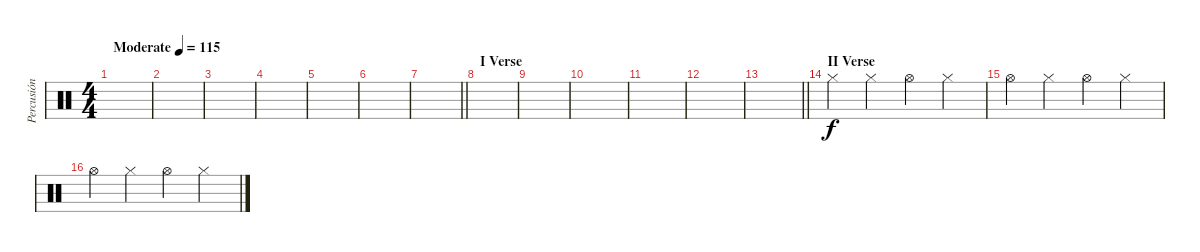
\track ("Percusión" "Percusión") {instrument percussion}
\staff {score}
\articulation defaults
\ts (4 4)
\tempo (115 "Moderate")
\clef neutral
\ks c
|
|
|
|
|
|
\barLineRight lightlight
|
\section ("" "I Verse")
|
|
|
|
|
\barLineRight lightlight
|
\section ("" "II Verse")
"Hi-Hat (closed)".4 "Hi-Hat (closed)".4 "Hi-Hat (open)".4 "Hi-Hat (closed)".4 |
"Hi-Hat (open)".4 "Hi-Hat (closed)".4 "Hi-Hat (open)".4 "Hi-Hat (closed)".4 |
"Hi-Hat (open)".4 "Hi-Hat (closed)".4 "Hi-Hat (open)".4 "Hi-Hat (closed)".4
